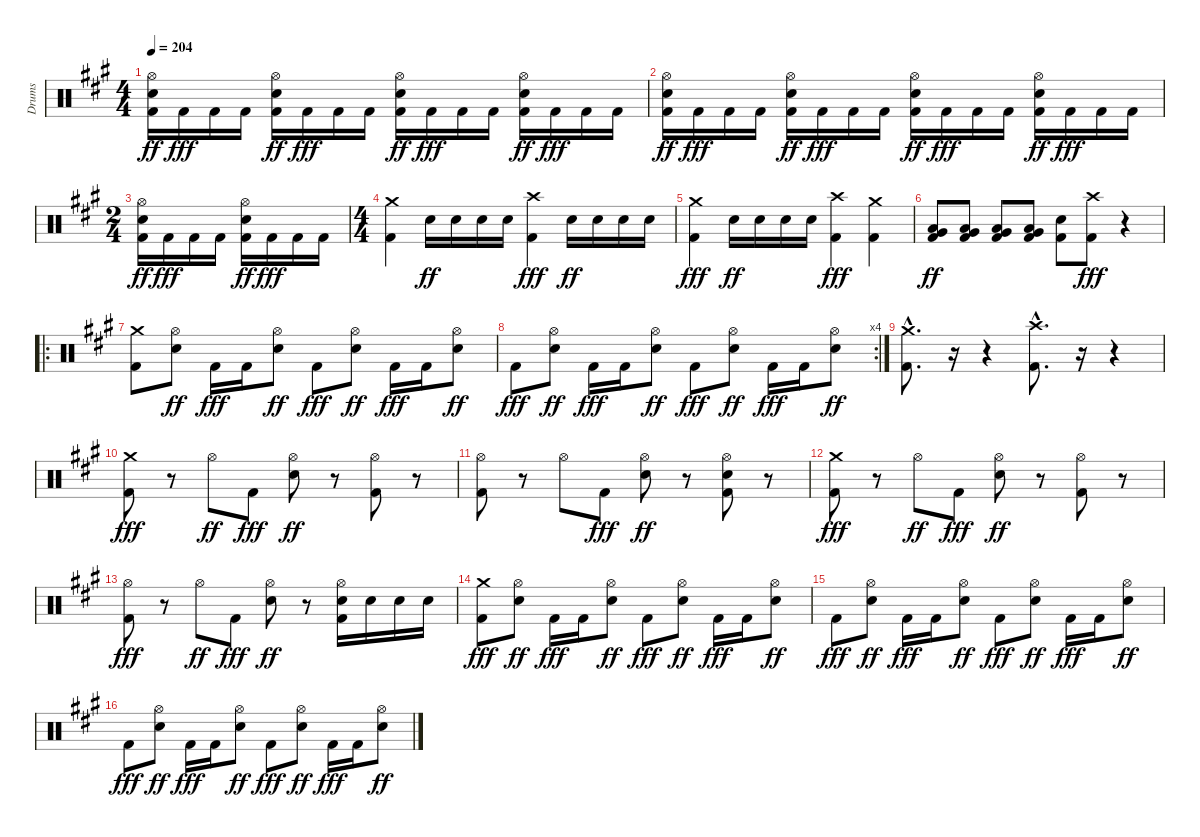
\track ("Drums" "Drums") {instrument percussion}
\staff {score}
\articulation defaults
\ts (4 4)
\tempo 204
\clef neutral
\ks a
("Kick (hit) 2" "Electric Snare (hit)" "Hi-Hat (open)").16{dy ff} "Kick (hit) 2".16{dy fff} "Kick (hit) 2".16 "Kick (hit) 2".16 ("Kick (hit) 2" "Electric Snare (hit)" "Hi-Hat (open)").16{dy ff} "Kick (hit) 2".16{dy fff} "Kick (hit) 2".16 "Kick (hit) 2".16 ("Kick (hit) 2" "Electric Snare (hit)" "Hi-Hat (open)").16{dy ff} "Kick (hit) 2".16{dy fff} "Kick (hit) 2".16 "Kick (hit) 2".16 ("Kick (hit) 2" "Electric Snare (hit)" "Hi-Hat (open)").16{dy ff} "Kick (hit) 2".16{dy fff} "Kick (hit) 2".16 "Kick (hit) 2".16 |
("Kick (hit) 2" "Electric Snare (hit)" "Hi-Hat (open)").16{dy ff} "Kick (hit) 2".16{dy fff} "Kick (hit) 2".16 "Kick (hit) 2".16 ("Kick (hit) 2" "Electric Snare (hit)" "Hi-Hat (open)").16{dy ff} "Kick (hit) 2".16{dy fff} "Kick (hit) 2".16 "Kick (hit) 2".16 ("Kick (hit) 2" "Electric Snare (hit)" "Hi-Hat (open)").16{dy ff} "Kick (hit) 2".16{dy fff} "Kick (hit) 2".16 "Kick (hit) 2".16 ("Kick (hit) 2" "Electric Snare (hit)" "Hi-Hat (open)").16{dy ff} "Kick (hit) 2".16{dy fff} "Kick (hit) 2".16 "Kick (hit) 2".16 |
\ts (2 4)
("Kick (hit) 2" "Electric Snare (hit)" "Hi-Hat (open)").16{dy ff} "Kick (hit) 2".16{dy fff} "Kick (hit) 2".16 "Kick (hit) 2".16 ("Kick (hit) 2" "Electric Snare (hit)" "Hi-Hat (open)").16{dy ff} "Kick (hit) 2".16{dy fff} "Kick (hit) 2".16 "Kick (hit) 2".16 |
\ts (4 4)
("Kick (hit) 2" "Crash medium (hit)").4 "Electric Snare (hit)".16{dy ff} "Electric Snare (hit)".16 "Electric Snare (hit)".16 "Electric Snare (hit)".16 ("Kick (hit) 2" "Crash high (hit)").4{dy fff} "Electric Snare (hit)".16{dy ff} "Electric Snare (hit)".16 "Electric Snare (hit)".16 "Electric Snare (hit)".16 |
("Kick (hit) 2" "Crash medium (hit)").4{dy fff} "Electric Snare (hit)".16{dy ff} "Electric Snare (hit)".16 "Electric Snare (hit)".16 "Electric Snare (hit)".16 ("Kick (hit) 2" "Crash high (hit)").4{dy fff} ("Kick (hit) 2" "Crash medium (hit)").4 |
("Kick (hit) 2" "Low Tom (hit)" "Very Low Tom (hit)").8{dy ff} ("Kick (hit) 2" "Low Tom (hit)" "Very Low Tom (hit)").8 ("Kick (hit) 2" "Low Tom (hit)" "Very Low Tom (hit)").8 ("Kick (hit) 2" "Low Tom (hit)" "Very Low Tom (hit)").8 ("Kick (hit) 2" "Electric Snare (hit)").8 ("Kick (hit) 2" "Crash high (hit)").8{dy fff} r.4 |
\ro
("Kick (hit) 2" "Crash medium (hit)").8 ("Electric Snare (hit)" "Hi-Hat (open)").8{dy ff} "Kick (hit) 2".16{dy fff} "Kick (hit) 2".16 ("Electric Snare (hit)" "Hi-Hat (open)").8{dy ff} "Kick (hit) 2".8{dy fff} ("Electric Snare (hit)" "Hi-Hat (open)").8{dy ff} "Kick (hit) 2".16{dy fff} "Kick (hit) 2".16 ("Electric Snare (hit)" "Hi-Hat (open)").8{dy ff} |
\rc 4 "Kick (hit) 2".8{dy fff}
("Electric Snare (hit)" "Hi-Hat (open)").8{dy ff} "Kick (hit) 2".16{dy fff} "Kick (hit) 2".16 ("Electric Snare (hit)" "Hi-Hat (open)").8{dy ff} "Kick (hit) 2".8{dy fff} ("Electric Snare (hit)" "Hi-Hat (open)").8{dy ff} "Kick (hit) 2".16{dy fff} "Kick (hit) 2".16 ("Electric Snare (hit)" "Hi-Hat (open)").8{dy ff} |
("Kick (hit) 2"{hac} "Crash medium (hit)"{hac}).8{d} r.16 r.4 ("Kick (hit) 2"{hac} "Crash high (hit)"{hac}).8{d} r.16 r.4 |
("Kick (hit) 2" "Crash medium (hit)").8{dy fff} r.8 "Hi-Hat (open)".8{dy ff} "Kick (hit) 2".8{dy fff} ("Electric Snare (hit)" "Hi-Hat (open)").8{dy ff} r.8 ("Kick (hit) 2" "Hi-Hat (open)").8 r.8 |
("Kick (hit) 2" "Hi-Hat (open)").8 r.8 "Hi-Hat (open)".8 "Kick (hit) 2".8{dy fff} ("Electric Snare (hit)" "Hi-Hat (open)").8{dy ff} r.8 ("Kick (hit) 2" "Electric Snare (hit)" "Hi-Hat (open)").8 r.8 |
("Kick (hit) 2" "Crash medium (hit)").8{dy fff} r.8 "Hi-Hat (open)".8{dy ff} "Kick (hit) 2".8{dy fff} ("Electric Snare (hit)" "Hi-Hat (open)").8{dy ff} r.8 ("Kick (hit) 2" "Hi-Hat (open)").8 r.8 |
("Kick (hit) 2" "Hi-Hat (open)").8{dy fff} r.8 "Hi-Hat (open)".8{dy ff} "Kick (hit) 2".8{dy fff} ("Electric Snare (hit)" "Hi-Hat (open)").8{dy ff} r.8 ("Kick (hit) 2" "Electric Snare (hit)" "Hi-Hat (open)").16 "Electric Snare (hit)".16 "Electric Snare (hit)".16 "Electric Snare (hit)".16 |
("Kick (hit) 2" "Crash medium (hit)").8{dy fff} ("Electric Snare (hit)" "Hi-Hat (open)").8{dy ff} "Kick (hit) 2".16{dy fff} "Kick (hit) 2".16 ("Electric Snare (hit)" "Hi-Hat (open)").8{dy ff} "Kick (hit) 2".8{dy fff} ("Electric Snare (hit)" "Hi-Hat (open)").8{dy ff} "Kick (hit) 2".16{dy fff} "Kick (hit) 2".16 ("Electric Snare (hit)" "Hi-Hat (open)").8{dy ff} |
"Kick (hit) 2".8{dy fff} ("Electric Snare (hit)" "Hi-Hat (open)").8{dy ff} "Kick (hit) 2".16{dy fff} "Kick (hit) 2".16 ("Electric Snare (hit)" "Hi-Hat (open)").8{dy ff} "Kick (hit) 2".8{dy fff} ("Electric Snare (hit)" "Hi-Hat (open)").8{dy ff} "Kick (hit) 2".16{dy fff} "Kick (hit) 2".16 ("Electric Snare (hit)" "Hi-Hat (open)").8{dy ff} |
"Kick (hit) 2".8{dy fff} ("Electric Snare (hit)" "Hi-Hat (open)").8{dy ff} "Kick (hit) 2".16{dy fff} "Kick (hit) 2".16 ("Electric Snare (hit)" "Hi-Hat (open)").8{dy ff} "Kick (hit) 2".8{dy fff} ("Electric Snare (hit)" "Hi-Hat (open)").8{dy ff} "Kick (hit) 2".16{dy fff} "Kick (hit) 2".16 ("Electric Snare (hit)" "Hi-Hat (open)").8{dy ff}
